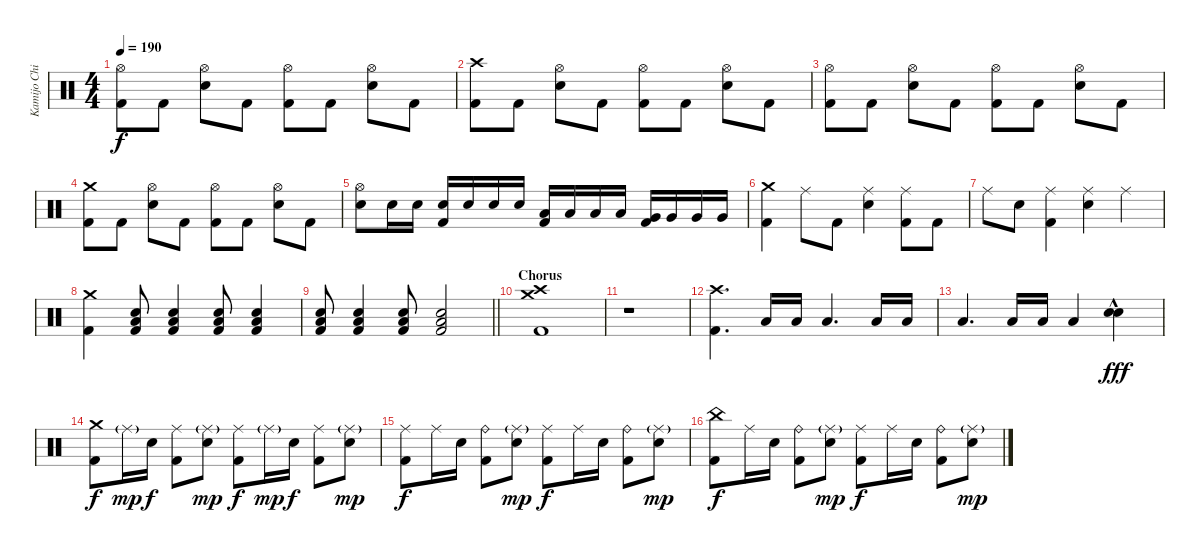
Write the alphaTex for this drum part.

\track ("Kamijo Chihiro" "Kamijo Chi") {instrument percussion}
\staff {score}
\articulation defaults
\ts (4 4)
\tempo 190
\clef neutral
\ks c
("Hi-Hat (open)" "Kick (hit) 2").8{dy f} "Kick (hit) 2".8 ("Hi-Hat (open)" "Snare (hit) 2").8 "Kick (hit) 2".8 ("Hi-Hat (open)" "Kick (hit) 2").8 "Kick (hit) 2".8 ("Hi-Hat (open)" "Snare (hit) 2").8 "Kick (hit) 2".8 |
("Crash high (hit)" "Kick (hit) 2").8 "Kick (hit) 2".8 ("Hi-Hat (open)" "Snare (hit) 2").8 "Kick (hit) 2".8 ("Hi-Hat (open)" "Kick (hit) 2").8 "Kick (hit) 2".8 ("Hi-Hat (open)" "Snare (hit) 2").8 "Kick (hit) 2".8 |
("Hi-Hat (open)" "Kick (hit) 2").8 "Kick (hit) 2".8 ("Hi-Hat (open)" "Snare (hit) 2").8 "Kick (hit) 2".8 ("Hi-Hat (open)" "Kick (hit) 2").8 "Kick (hit) 2".8 ("Hi-Hat (open)" "Snare (hit) 2").8 "Kick (hit) 2".8 |
("Crash medium (hit)" "Kick (hit) 2").8 "Kick (hit) 2".8 ("Hi-Hat (open)" "Snare (hit) 2").8 "Kick (hit) 2".8 ("Hi-Hat (open)" "Kick (hit) 2").8 "Kick (hit) 2".8 ("Hi-Hat (open)" "Snare (hit) 2").8 "Kick (hit) 2".8 |
("Hi-Hat (open)" "Snare (hit) 2").8 "Snare (hit) 2".16 "Snare (hit) 2".16 ("Snare (hit) 2" "Kick (hit) 2").16 "Snare (hit) 2".16 "Snare (hit) 2".16 "Snare (hit) 2".16 ("Low Tom (hit)" "Kick (hit) 2").16 "Low Tom (hit)".16 "Low Tom (hit)".16 "Low Tom (hit)".16 ("Very Low Tom (hit)" "Kick (hit) 2").16 "Very Low Tom (hit)".16 "Very Low Tom (hit)".16 "Very Low Tom (hit)".16 |
("Crash medium (hit)" "Kick (hit) 2").4 "Ride (middle)".8 "Kick (hit) 2".8 ("Ride (middle)" "Snare (hit) 2").4 ("Ride (middle)" "Kick (hit) 2").8 "Kick (hit) 2".8 |
"Ride (middle)".8 "Snare (hit) 2".8 ("Ride (middle)" "Kick (hit) 2").4 ("Ride (middle)" "Snare (hit) 2").4 "Ride (middle)".4 |
("Crash medium (hit)" "Kick (hit) 2").4 ("Snare (hit) 2" "Low Floor Tom (hit)" "Kick (hit) 2").8 ("Snare (hit) 2" "Low Floor Tom (hit)" "Kick (hit) 2").4 ("Snare (hit) 2" "Low Floor Tom (hit)" "Kick (hit) 2").8 ("Snare (hit) 2" "Low Floor Tom (hit)" "Kick (hit) 2").4 |
\barLineRight lightlight
("Snare (hit) 2" "Low Floor Tom (hit)" "Kick (hit) 2").8 ("Snare (hit) 2" "Low Floor Tom (hit)" "Kick (hit) 2").4 ("Snare (hit) 2" "Low Floor Tom (hit)" "Kick (hit) 2").8 ("Snare (hit) 2" "Low Floor Tom (hit)" "Kick (hit) 2").2 |
\section ("" "Chorus")
("Crash high (hit)" "Crash medium (hit)" "Kick (hit) 2").1 |
r.1 |
("Crash high (hit)" "Kick (hit) 2").4{d} "Low Tom (hit)".16 "Low Tom (hit)".16 "Low Tom (hit)".4{d} "Low Tom (hit)".16 "Low Tom (hit)".16 |
"Low Tom (hit)".4{d} "Low Tom (hit)".16 "Low Tom (hit)".16 "Low Tom (hit)".4 ("Snare (hit) 2"{hac} "Snare (hit) 2"{hac}).4{dy fff} |
("Crash medium (hit)" "Kick (hit) 2").8{dy f} "Ride (middle)"{g}.16{dy mp} "Snare (hit) 2".16{dy f} ("Ride (middle)" "Kick (hit) 2").8 ("Ride (middle)"{g} "Snare (hit) 2").8{dy mp} ("Ride (middle)" "Kick (hit) 2").8{dy f} "Ride (middle)"{g}.16{dy mp} "Snare (hit) 2".16{dy f} ("Ride (middle)" "Kick (hit) 2").8 ("Ride (middle)"{g} "Snare (hit) 2").8{dy mp} |
("Ride (middle)" "Kick (hit) 2").8{dy f} "Ride (middle)".16 "Snare (hit) 2".16 ("Ride (bell)" "Kick (hit) 2").8 ("Ride (middle)"{g} "Snare (hit) 2").8{dy mp} ("Ride (middle)" "Kick (hit) 2").8{dy f} "Ride (middle)".16 "Snare (hit) 2".16 ("Ride (bell)" "Kick (hit) 2").8 ("Ride (middle)"{g} "Snare (hit) 2").8{dy mp} |
("China (hit)" "Kick (hit) 2").8{dy f} "Ride (middle)".16 "Snare (hit) 2".16 ("Ride (bell)" "Kick (hit) 2").8 ("Ride (middle)"{g} "Snare (hit) 2").8{dy mp} ("Ride (middle)" "Kick (hit) 2").8{dy f} "Ride (middle)".16 "Snare (hit) 2".16 ("Ride (bell)" "Kick (hit) 2").8 ("Ride (middle)"{g} "Snare (hit) 2").8{dy mp}
